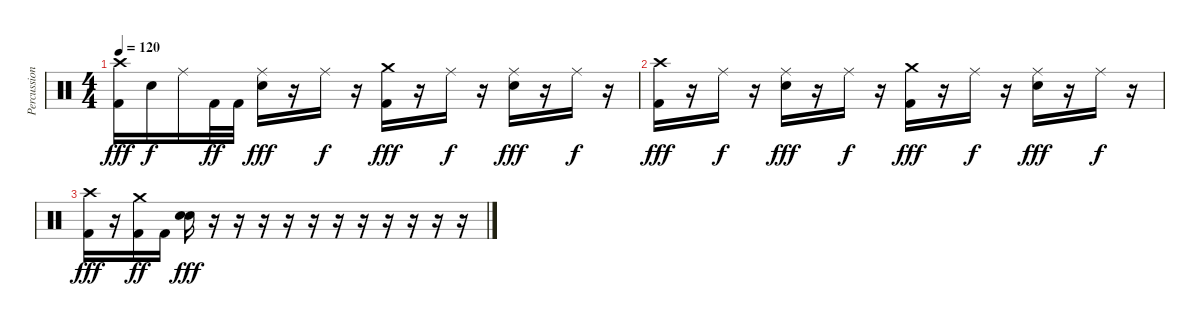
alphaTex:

\track ("Percussion" "Percussion") {instrument percussion}
\staff {score}
\articulation defaults
\ts (4 4)
\tempo 120
\clef neutral
\ks c
("Kick (hit) 2" "Crash high (hit)").16{dy fff} "Snare (hit) 2".16{dy f} "Ride (middle)".16 "Kick (hit) 2".32{dy ff} "Kick (hit) 2".32 ("Snare (hit) 2" "Ride (middle)").16{dy fff} r.16 "Ride (middle)".16{dy f} r.16 ("Kick (hit) 2" "Crash medium (hit)").16{dy fff} r.16 "Ride (middle)".16{dy f} r.16 ("Snare (hit) 2" "Ride (middle)").16{dy fff} r.16 "Ride (middle)".16{dy f} r.16 |
("Kick (hit) 2" "Crash high (hit)").16{dy fff} r.16 "Ride (middle)".16{dy f} r.16 ("Snare (hit) 2" "Ride (middle)").16{dy fff} r.16 "Ride (middle)".16{dy f} r.16 ("Kick (hit) 2" "Crash medium (hit)").16{dy fff} r.16 "Ride (middle)".16{dy f} r.16 ("Snare (hit) 2" "Ride (middle)").16{dy fff} r.16 "Ride (middle)".16{dy f} r.16 |
("Kick (hit) 2" "Crash high (hit)").16{dy fff} r.16 ("Kick (hit) 2" "Crash medium (hit)").16{dy ff} "Kick (hit) 2".16 ("Snare (hit) 2" "Snare (hit) 2").16{bd 480 dy fff} r.16 r.16 r.16 r.16 r.16 r.16 r.16 r.16 r.16 r.16 r.16
